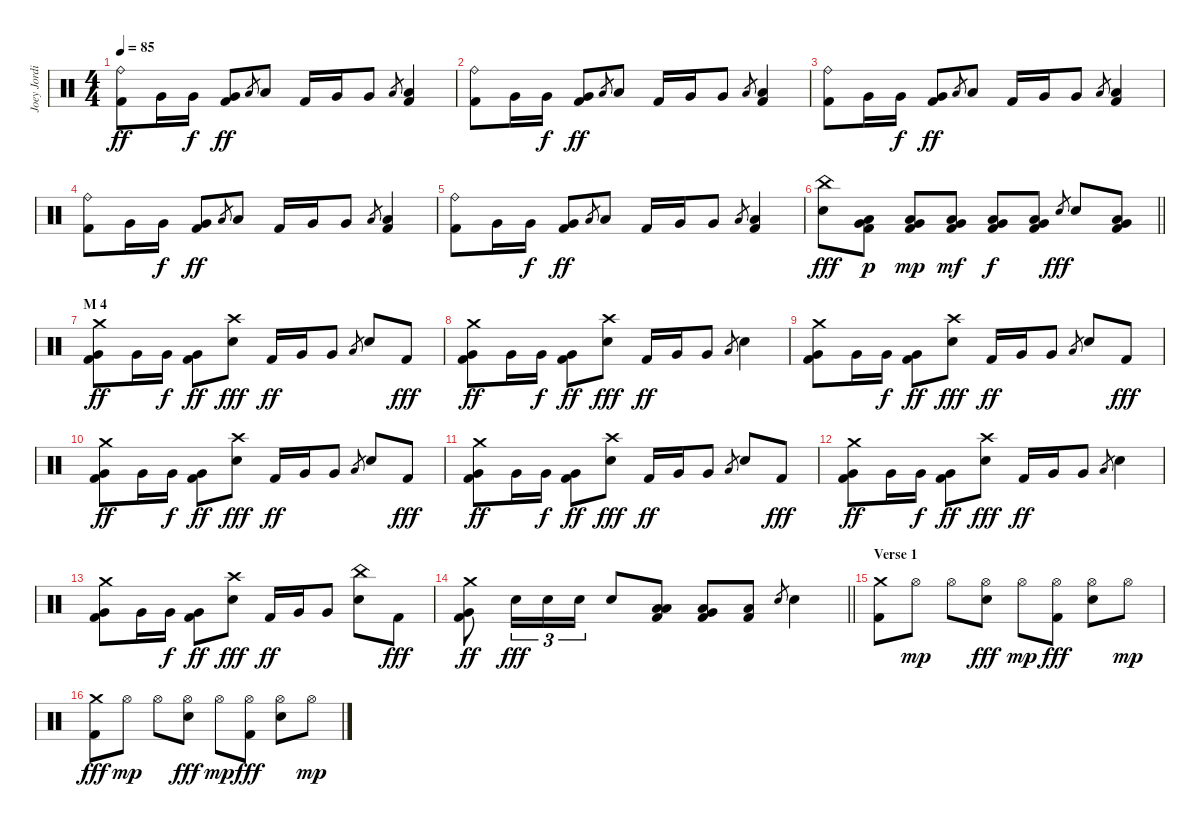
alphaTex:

\track ("Joey Jordison" "Joey Jordi") {instrument percussion}
\staff {score}
\articulation defaults
\ts (4 4)
\tempo 85
\clef neutral
\ks c
("Ride (bell)" "Kick (hit) 2").8{dy ff} "Very Low Tom (hit)".16 "Very Low Tom (hit)".16{dy f} ("Very Low Tom (hit)" "Kick (hit) 2").8{dy ff} "Low Tom (hit)".8{gr} "Low Tom (hit)".8 "Kick (hit) 2".16 "Very Low Tom (hit)".16 "Very Low Tom (hit)".8 "Low Tom (hit)".8{gr} ("Low Tom (hit)" "Kick (hit) 2").4 |
("Ride (bell)" "Kick (hit) 2").8 "Very Low Tom (hit)".16 "Very Low Tom (hit)".16{dy f} ("Very Low Tom (hit)" "Kick (hit) 2").8{dy ff} "Low Tom (hit)".8{gr} "Low Tom (hit)".8 "Kick (hit) 2".16 "Very Low Tom (hit)".16 "Very Low Tom (hit)".8 "Low Tom (hit)".8{gr} ("Low Tom (hit)" "Kick (hit) 2").4 |
("Ride (bell)" "Kick (hit) 2").8 "Very Low Tom (hit)".16 "Very Low Tom (hit)".16{dy f} ("Very Low Tom (hit)" "Kick (hit) 2").8{dy ff} "Low Tom (hit)".8{gr} "Low Tom (hit)".8 "Kick (hit) 2".16 "Very Low Tom (hit)".16 "Very Low Tom (hit)".8 "Low Tom (hit)".8{gr} ("Low Tom (hit)" "Kick (hit) 2").4 |
("Ride (bell)" "Kick (hit) 2").8 "Very Low Tom (hit)".16 "Very Low Tom (hit)".16{dy f} ("Very Low Tom (hit)" "Kick (hit) 2").8{dy ff} "Low Tom (hit)".8{gr} "Low Tom (hit)".8 "Kick (hit) 2".16 "Very Low Tom (hit)".16 "Very Low Tom (hit)".8 "Low Tom (hit)".8{gr} ("Low Tom (hit)" "Kick (hit) 2").4 |
("Ride (bell)" "Kick (hit) 2").8 "Very Low Tom (hit)".16 "Very Low Tom (hit)".16{dy f} ("Very Low Tom (hit)" "Kick (hit) 2").8{dy ff} "Low Tom (hit)".8{gr} "Low Tom (hit)".8 "Kick (hit) 2".16 "Very Low Tom (hit)".16 "Very Low Tom (hit)".8 "Low Tom (hit)".8{gr} ("Low Tom (hit)" "Kick (hit) 2").4 |
\barLineRight lightlight
("China (hit)" "Electric Snare (hit)").8{dy fff} ("Very Low Tom (hit)" "Low Floor Tom (hit)" "Kick (hit) 2").8{dy p} ("Very Low Tom (hit)" "Low Floor Tom (hit)" "Kick (hit) 2").8{dy mp} ("Very Low Tom (hit)" "Low Floor Tom (hit)" "Kick (hit) 2").8{dy mf} ("Very Low Tom (hit)" "Low Floor Tom (hit)" "Kick (hit) 2").8{dy f} ("Very Low Tom (hit)" "Low Floor Tom (hit)" "Kick (hit) 2").8 "Electric Snare (hit)".8{gr dy fff} "Electric Snare (hit)".8 ("Very Low Tom (hit)" "Low Floor Tom (hit)" "Kick (hit) 2").8 |
\section ("" "M 4")
("Crash medium (hit)" "Very Low Tom (hit)" "Kick (hit) 2").8{dy ff} "Very Low Tom (hit)".16 "Very Low Tom (hit)".16{dy f} ("Very Low Tom (hit)" "Kick (hit) 2").8{dy ff} ("Crash high (hit)" "Electric Snare (hit)").8{dy fff} "Kick (hit) 2".16{dy ff} "Very Low Tom (hit)".16 "Very Low Tom (hit)".8 "Low Tom (hit)".8{gr} "Electric Snare (hit)".8 "Kick (hit) 2".8{dy fff} |
("Crash medium (hit)" "Very Low Tom (hit)" "Kick (hit) 2").8{dy ff} "Very Low Tom (hit)".16 "Very Low Tom (hit)".16{dy f} ("Very Low Tom (hit)" "Kick (hit) 2").8{dy ff} ("Crash high (hit)" "Electric Snare (hit)").8{dy fff} "Kick (hit) 2".16{dy ff} "Very Low Tom (hit)".16 "Very Low Tom (hit)".8 "Low Tom (hit)".8{gr} "Electric Snare (hit)".4 |
("Crash medium (hit)" "Very Low Tom (hit)" "Kick (hit) 2").8 "Very Low Tom (hit)".16 "Very Low Tom (hit)".16{dy f} ("Very Low Tom (hit)" "Kick (hit) 2").8{dy ff} ("Crash high (hit)" "Electric Snare (hit)").8{dy fff} "Kick (hit) 2".16{dy ff} "Very Low Tom (hit)".16 "Very Low Tom (hit)".8 "Low Tom (hit)".8{gr} "Electric Snare (hit)".8 "Kick (hit) 2".8{dy fff} |
("Crash medium (hit)" "Very Low Tom (hit)" "Kick (hit) 2").8{dy ff} "Very Low Tom (hit)".16 "Very Low Tom (hit)".16{dy f} ("Very Low Tom (hit)" "Kick (hit) 2").8{dy ff} ("Crash high (hit)" "Electric Snare (hit)").8{dy fff} "Kick (hit) 2".16{dy ff} "Very Low Tom (hit)".16 "Very Low Tom (hit)".8 "Low Tom (hit)".8{gr} "Electric Snare (hit)".8 "Kick (hit) 2".8{dy fff} |
("Crash medium (hit)" "Very Low Tom (hit)" "Kick (hit) 2").8{dy ff} "Very Low Tom (hit)".16 "Very Low Tom (hit)".16{dy f} ("Very Low Tom (hit)" "Kick (hit) 2").8{dy ff} ("Crash high (hit)" "Electric Snare (hit)").8{dy fff} "Kick (hit) 2".16{dy ff} "Very Low Tom (hit)".16 "Very Low Tom (hit)".8 "Low Tom (hit)".8{gr} "Electric Snare (hit)".8 "Kick (hit) 2".8{dy fff} |
("Crash medium (hit)" "Very Low Tom (hit)" "Kick (hit) 2").8{dy ff} "Very Low Tom (hit)".16 "Very Low Tom (hit)".16{dy f} ("Very Low Tom (hit)" "Kick (hit) 2").8{dy ff} ("Crash high (hit)" "Electric Snare (hit)").8{dy fff} "Kick (hit) 2".16{dy ff} "Very Low Tom (hit)".16 "Very Low Tom (hit)".8 "Low Tom (hit)".8{gr} "Electric Snare (hit)".4 |
("Crash medium (hit)" "Very Low Tom (hit)" "Kick (hit) 2").8 "Very Low Tom (hit)".16 "Very Low Tom (hit)".16{dy f} ("Very Low Tom (hit)" "Kick (hit) 2").8{dy ff} ("Crash high (hit)" "Electric Snare (hit)").8{dy fff} "Kick (hit) 2".16{dy ff} "Very Low Tom (hit)".16 "Very Low Tom (hit)".8 ("China (hit)" "Electric Snare (hit)").8 "Kick (hit) 2".8{dy fff} |
\barLineRight lightlight
("Crash medium (hit)" "Very Low Tom (hit)" "Kick (hit) 2").8{dy ff} "Electric Snare (hit)".16{tu (3 2) dy fff} "Electric Snare (hit)".16{tu (3 2)} "Electric Snare (hit)".16{tu (3 2)} "Electric Snare (hit)".8 ("Low Tom (hit)" "Low Floor Tom (hit)" "Kick (hit) 2").8 ("Very Low Tom (hit)" "Low Floor Tom (hit)" "Kick (hit) 2").8 ("Low Floor Tom (hit)" "Kick (hit) 2").8 "Electric Snare (hit)".8{gr} "Electric Snare (hit)".4 |
\section ("" "Verse 1")
("Crash medium (hit)" "Kick (hit) 2").8 "Hi-Hat (open)".8{dy mp} "Hi-Hat (open)".8 ("Hi-Hat (open)" "Electric Snare (hit)").8{dy fff} "Hi-Hat (open)".8{dy mp} ("Hi-Hat (open)" "Kick (hit) 2").8{dy fff} ("Hi-Hat (open)" "Electric Snare (hit)").8 "Hi-Hat (open)".8{dy mp} |
("Crash medium (hit)" "Kick (hit) 2").8{dy fff} "Hi-Hat (open)".8{dy mp} "Hi-Hat (open)".8 ("Hi-Hat (open)" "Electric Snare (hit)").8{dy fff} "Hi-Hat (open)".8{dy mp} ("Hi-Hat (open)" "Kick (hit) 2").8{dy fff} ("Hi-Hat (open)" "Electric Snare (hit)").8 "Hi-Hat (open)".8{dy mp}
